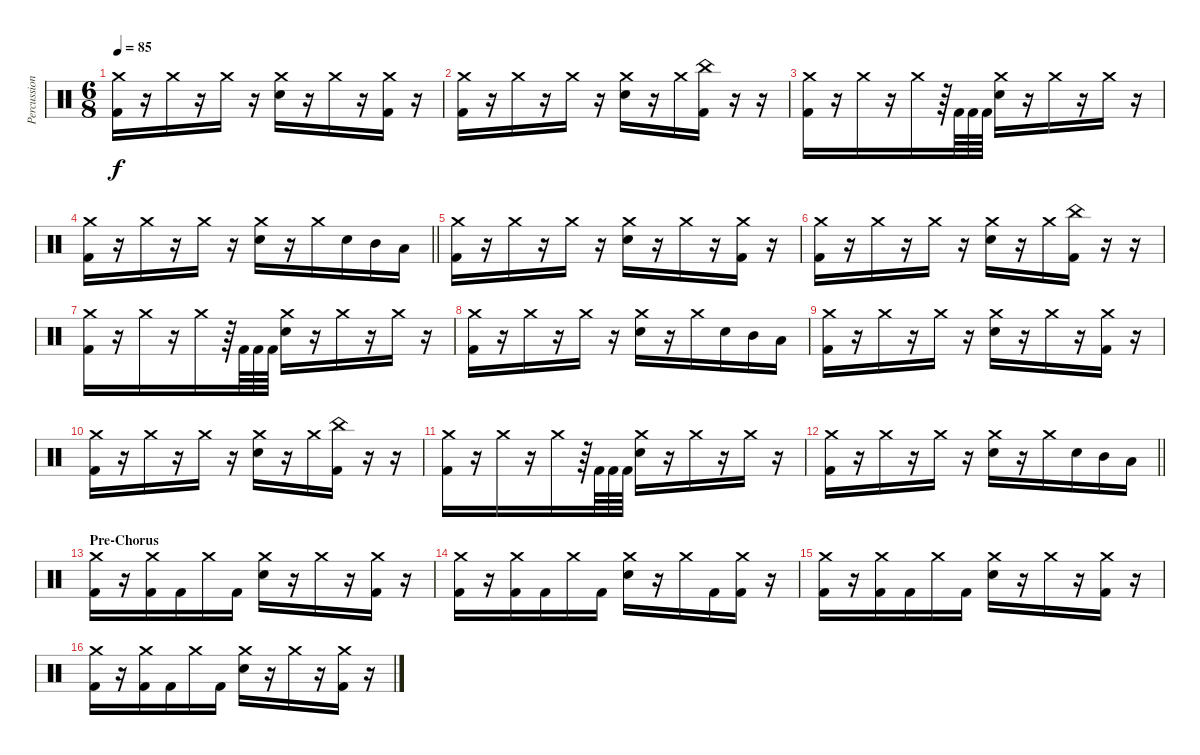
\track ("Percussion" "Percussion") {instrument percussion}
\staff {score}
\articulation defaults
\ts (6 8)
\tempo 85
\clef neutral
\ks c
("Crash medium (hit)" "Kick (hit) 2").16{dy f} r.16 "Crash medium (hit)".16 r.16 "Crash medium (hit)".16 r.16 ("Crash medium (hit)" "Electric Snare (hit)").16 r.16 "Crash medium (hit)".16 r.16 ("Crash medium (hit)" "Kick (hit) 2").16 r.16 |
("Crash medium (hit)" "Kick (hit) 2").16 r.16 "Crash medium (hit)".16 r.16 "Crash medium (hit)".16 r.16 ("Crash medium (hit)" "Electric Snare (hit)").16 r.16 "Crash medium (hit)".16 ("China (hit)" "Kick (hit) 2").16 r.16 r.16 |
("Crash medium (hit)" "Kick (hit) 2").16 r.16 "Crash medium (hit)".16 r.16 "Crash medium (hit)".16 r.64 "Kick (hit) 2".64 "Kick (hit) 2".64 "Kick (hit) 2".64 ("Crash medium (hit)" "Electric Snare (hit)").16 r.16 "Crash medium (hit)".16 r.16 "Crash medium (hit)".16 r.16 |
\barLineRight lightlight
("Crash medium (hit)" "Kick (hit) 2").16 r.16 "Crash medium (hit)".16 r.16 "Crash medium (hit)".16 r.16 ("Crash medium (hit)" "Electric Snare (hit)").16 r.16 "Crash medium (hit)".16 "Electric Snare (hit)".16 "Mid Tom (hit)".16 "Low Tom (hit)".16 |
("Crash medium (hit)" "Kick (hit) 2").16 r.16 "Crash medium (hit)".16 r.16 "Crash medium (hit)".16 r.16 ("Crash medium (hit)" "Electric Snare (hit)").16 r.16 "Crash medium (hit)".16 r.16 ("Crash medium (hit)" "Kick (hit) 2").16 r.16 |
("Crash medium (hit)" "Kick (hit) 2").16 r.16 "Crash medium (hit)".16 r.16 "Crash medium (hit)".16 r.16 ("Crash medium (hit)" "Electric Snare (hit)").16 r.16 "Crash medium (hit)".16 ("China (hit)" "Kick (hit) 2").16 r.16 r.16 |
("Crash medium (hit)" "Kick (hit) 2").16 r.16 "Crash medium (hit)".16 r.16 "Crash medium (hit)".16 r.64 "Kick (hit) 2".64 "Kick (hit) 2".64 "Kick (hit) 2".64 ("Crash medium (hit)" "Electric Snare (hit)").16 r.16 "Crash medium (hit)".16 r.16 "Crash medium (hit)".16 r.16 |
("Crash medium (hit)" "Kick (hit) 2").16 r.16 "Crash medium (hit)".16 r.16 "Crash medium (hit)".16 r.16 ("Crash medium (hit)" "Electric Snare (hit)").16 r.16 "Crash medium (hit)".16 "Electric Snare (hit)".16 "Mid Tom (hit)".16 "Low Tom (hit)".16 |
("Crash medium (hit)" "Kick (hit) 2").16 r.16 "Crash medium (hit)".16 r.16 "Crash medium (hit)".16 r.16 ("Crash medium (hit)" "Electric Snare (hit)").16 r.16 "Crash medium (hit)".16 r.16 ("Crash medium (hit)" "Kick (hit) 2").16 r.16 |
("Crash medium (hit)" "Kick (hit) 2").16 r.16 "Crash medium (hit)".16 r.16 "Crash medium (hit)".16 r.16 ("Crash medium (hit)" "Electric Snare (hit)").16 r.16 "Crash medium (hit)".16 ("China (hit)" "Kick (hit) 2").16 r.16 r.16 |
("Crash medium (hit)" "Kick (hit) 2").16 r.16 "Crash medium (hit)".16 r.16 "Crash medium (hit)".16 r.64 "Kick (hit) 2".64 "Kick (hit) 2".64 "Kick (hit) 2".64 ("Crash medium (hit)" "Electric Snare (hit)").16 r.16 "Crash medium (hit)".16 r.16 "Crash medium (hit)".16 r.16 |
\barLineRight lightlight
("Crash medium (hit)" "Kick (hit) 2").16 r.16 "Crash medium (hit)".16 r.16 "Crash medium (hit)".16 r.16 ("Crash medium (hit)" "Electric Snare (hit)").16 r.16 "Crash medium (hit)".16 "Electric Snare (hit)".16 "Mid Tom (hit)".16 "Low Tom (hit)".16 |
\section ("" "Pre-Chorus")
("Crash medium (hit)" "Kick (hit) 2").16 r.16 ("Crash medium (hit)" "Kick (hit) 2").16 "Kick (hit) 2".16 "Crash medium (hit)".16 "Kick (hit) 2".16 ("Crash medium (hit)" "Electric Snare (hit)").16 r.16 "Crash medium (hit)".16 r.16 ("Crash medium (hit)" "Kick (hit) 2").16 r.16 |
("Crash medium (hit)" "Kick (hit) 2").16 r.16 ("Crash medium (hit)" "Kick (hit) 2").16 "Kick (hit) 2".16 "Crash medium (hit)".16 "Kick (hit) 2".16 ("Crash medium (hit)" "Electric Snare (hit)").16 r.16 "Crash medium (hit)".16 "Kick (hit) 2".16 ("Crash medium (hit)" "Kick (hit) 2").16 r.16 |
("Crash medium (hit)" "Kick (hit) 2").16 r.16 ("Crash medium (hit)" "Kick (hit) 2").16 "Kick (hit) 2".16 "Crash medium (hit)".16 "Kick (hit) 2".16 ("Crash medium (hit)" "Electric Snare (hit)").16 r.16 "Crash medium (hit)".16 r.16 ("Crash medium (hit)" "Kick (hit) 2").16 r.16 |
("Crash medium (hit)" "Kick (hit) 2").16 r.16 ("Crash medium (hit)" "Kick (hit) 2").16 "Kick (hit) 2".16 "Crash medium (hit)".16 "Kick (hit) 2".16 ("Crash medium (hit)" "Electric Snare (hit)").16 r.16 "Crash medium (hit)".16 r.16 ("Crash medium (hit)" "Kick (hit) 2").16 r.16
